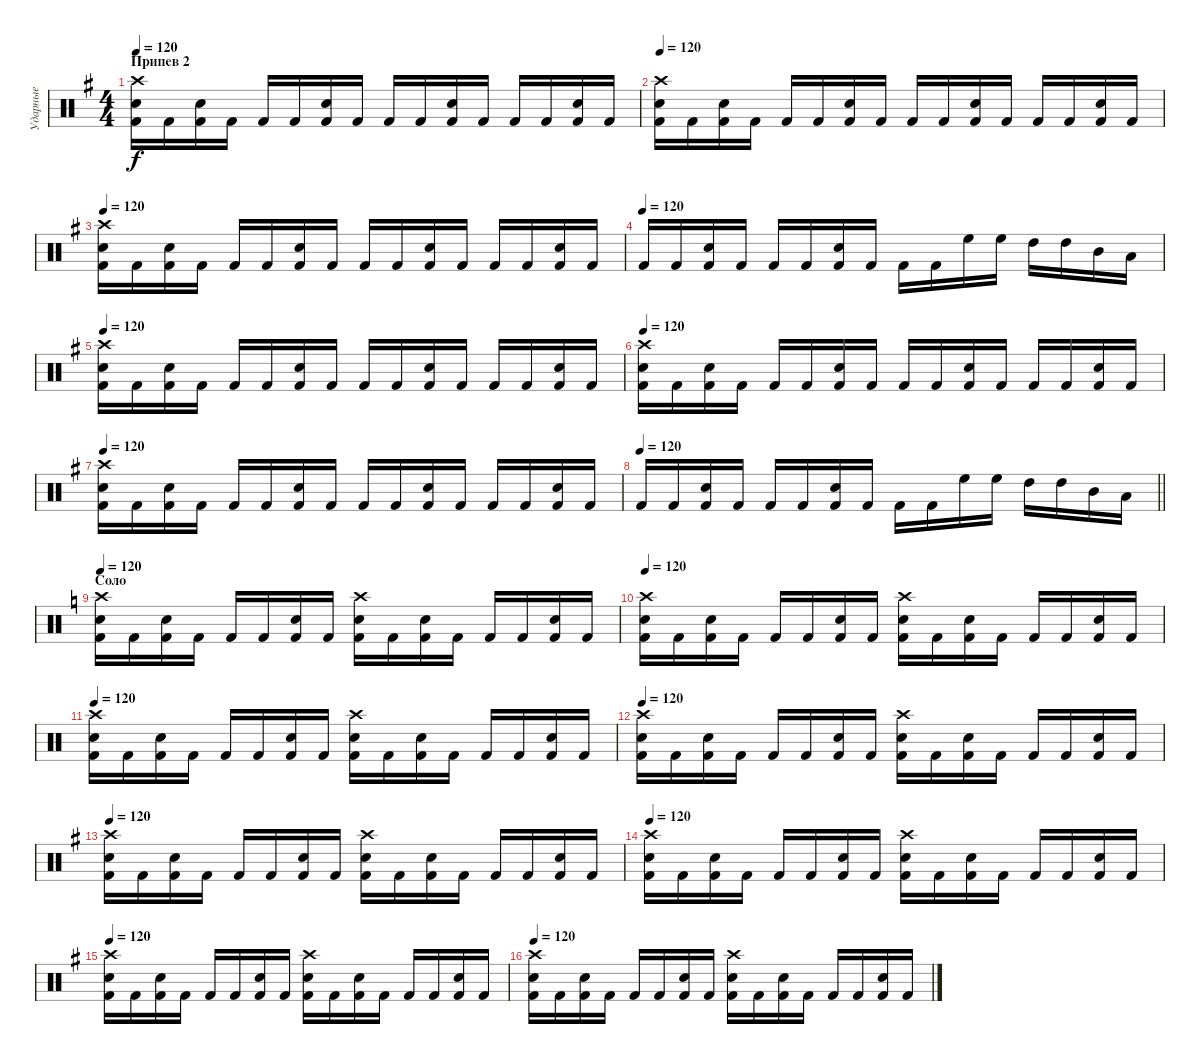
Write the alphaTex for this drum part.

\track ("Ударные" "Ударные") {solo instrument percussion}
\staff {score}
\articulation defaults
\ts (4 4)
\section ("" "Припев 2")
\tempo 120
\clef neutral
\ks g
("Crash high (hit)" "Electric Snare (hit)" "Kick (hit) 2").16{dy f} "Kick (hit) 2".16 ("Electric Snare (hit)" "Kick (hit) 2").16 "Kick (hit) 2".16 "Kick (hit) 2".16 "Kick (hit) 2".16 ("Electric Snare (hit)" "Kick (hit) 2").16 "Kick (hit) 2".16 "Kick (hit) 2".16 "Kick (hit) 2".16 ("Electric Snare (hit)" "Kick (hit) 2").16 "Kick (hit) 2".16 "Kick (hit) 2".16 "Kick (hit) 2".16 ("Electric Snare (hit)" "Kick (hit) 2").16 "Kick (hit) 2".16 |
\tempo 120
("Crash high (hit)" "Electric Snare (hit)" "Kick (hit) 2").16 "Kick (hit) 2".16 ("Electric Snare (hit)" "Kick (hit) 2").16 "Kick (hit) 2".16 "Kick (hit) 2".16 "Kick (hit) 2".16 ("Electric Snare (hit)" "Kick (hit) 2").16 "Kick (hit) 2".16 "Kick (hit) 2".16 "Kick (hit) 2".16 ("Electric Snare (hit)" "Kick (hit) 2").16 "Kick (hit) 2".16 "Kick (hit) 2".16 "Kick (hit) 2".16 ("Electric Snare (hit)" "Kick (hit) 2").16 "Kick (hit) 2".16 |
\tempo 120
("Crash high (hit)" "Electric Snare (hit)" "Kick (hit) 2").16 "Kick (hit) 2".16 ("Electric Snare (hit)" "Kick (hit) 2").16 "Kick (hit) 2".16 "Kick (hit) 2".16 "Kick (hit) 2".16 ("Electric Snare (hit)" "Kick (hit) 2").16 "Kick (hit) 2".16 "Kick (hit) 2".16 "Kick (hit) 2".16 ("Electric Snare (hit)" "Kick (hit) 2").16 "Kick (hit) 2".16 "Kick (hit) 2".16 "Kick (hit) 2".16 ("Electric Snare (hit)" "Kick (hit) 2").16 "Kick (hit) 2".16 |
\tempo (120)
"Kick (hit) 2".16 "Kick (hit) 2".16 ("Electric Snare (hit)" "Kick (hit) 2").16 "Kick (hit) 2".16 "Kick (hit) 2".16 "Kick (hit) 2".16 ("Electric Snare (hit)" "Kick (hit) 2").16 "Kick (hit) 2".16 "Kick (hit) 2".16 "Kick (hit) 2".16 "High Floor Tom (hit)".16 "High Floor Tom (hit)".16 "High Tom (hit)".16 "High Tom (hit)".16 "Mid Tom (hit)".16 "Low Tom (hit)".16 |
\tempo 120
("Crash high (hit)" "Electric Snare (hit)" "Kick (hit) 2").16 "Kick (hit) 2".16 ("Electric Snare (hit)" "Kick (hit) 2").16 "Kick (hit) 2".16 "Kick (hit) 2".16 "Kick (hit) 2".16 ("Electric Snare (hit)" "Kick (hit) 2").16 "Kick (hit) 2".16 "Kick (hit) 2".16 "Kick (hit) 2".16 ("Electric Snare (hit)" "Kick (hit) 2").16 "Kick (hit) 2".16 "Kick (hit) 2".16 "Kick (hit) 2".16 ("Electric Snare (hit)" "Kick (hit) 2").16 "Kick (hit) 2".16 |
\tempo 120
("Crash high (hit)" "Electric Snare (hit)" "Kick (hit) 2").16 "Kick (hit) 2".16 ("Electric Snare (hit)" "Kick (hit) 2").16 "Kick (hit) 2".16 "Kick (hit) 2".16 "Kick (hit) 2".16 ("Electric Snare (hit)" "Kick (hit) 2").16 "Kick (hit) 2".16 "Kick (hit) 2".16 "Kick (hit) 2".16 ("Electric Snare (hit)" "Kick (hit) 2").16 "Kick (hit) 2".16 "Kick (hit) 2".16 "Kick (hit) 2".16 ("Electric Snare (hit)" "Kick (hit) 2").16 "Kick (hit) 2".16 |
\tempo 120
("Crash high (hit)" "Electric Snare (hit)" "Kick (hit) 2").16 "Kick (hit) 2".16 ("Electric Snare (hit)" "Kick (hit) 2").16 "Kick (hit) 2".16 "Kick (hit) 2".16 "Kick (hit) 2".16 ("Electric Snare (hit)" "Kick (hit) 2").16 "Kick (hit) 2".16 "Kick (hit) 2".16 "Kick (hit) 2".16 ("Electric Snare (hit)" "Kick (hit) 2").16 "Kick (hit) 2".16 "Kick (hit) 2".16 "Kick (hit) 2".16 ("Electric Snare (hit)" "Kick (hit) 2").16 "Kick (hit) 2".16 |
\tempo 120
\barLineRight lightlight "Kick (hit) 2".16 "Kick (hit) 2".16
("Electric Snare (hit)" "Kick (hit) 2").16 "Kick (hit) 2".16 "Kick (hit) 2".16 "Kick (hit) 2".16 ("Electric Snare (hit)" "Kick (hit) 2").16 "Kick (hit) 2".16 "Kick (hit) 2".16 "Kick (hit) 2".16 "High Floor Tom (hit)".16 "High Floor Tom (hit)".16 "High Tom (hit)".16 "High Tom (hit)".16 "Mid Tom (hit)".16 "Low Tom (hit)".16 |
\section ("" "Соло")
\tempo 120
\ks c
("Crash high (hit)" "Electric Snare (hit)" "Kick (hit) 2").16 "Kick (hit) 2".16 ("Electric Snare (hit)" "Kick (hit) 2").16 "Kick (hit) 2".16 "Kick (hit) 2".16 "Kick (hit) 2".16 ("Electric Snare (hit)" "Kick (hit) 2").16 "Kick (hit) 2".16 ("Crash high (hit)" "Electric Snare (hit)" "Kick (hit) 2").16 "Kick (hit) 2".16 ("Electric Snare (hit)" "Kick (hit) 2").16 "Kick (hit) 2".16 "Kick (hit) 2".16 "Kick (hit) 2".16 ("Electric Snare (hit)" "Kick (hit) 2").16 "Kick (hit) 2".16 |
\tempo 120
("Crash high (hit)" "Electric Snare (hit)" "Kick (hit) 2").16 "Kick (hit) 2".16 ("Electric Snare (hit)" "Kick (hit) 2").16 "Kick (hit) 2".16 "Kick (hit) 2".16 "Kick (hit) 2".16 ("Electric Snare (hit)" "Kick (hit) 2").16 "Kick (hit) 2".16 ("Crash high (hit)" "Electric Snare (hit)" "Kick (hit) 2").16 "Kick (hit) 2".16 ("Electric Snare (hit)" "Kick (hit) 2").16 "Kick (hit) 2".16 "Kick (hit) 2".16 "Kick (hit) 2".16 ("Electric Snare (hit)" "Kick (hit) 2").16 "Kick (hit) 2".16 |
\tempo 120
("Crash high (hit)" "Electric Snare (hit)" "Kick (hit) 2").16 "Kick (hit) 2".16 ("Electric Snare (hit)" "Kick (hit) 2").16 "Kick (hit) 2".16 "Kick (hit) 2".16 "Kick (hit) 2".16 ("Electric Snare (hit)" "Kick (hit) 2").16 "Kick (hit) 2".16 ("Crash high (hit)" "Electric Snare (hit)" "Kick (hit) 2").16 "Kick (hit) 2".16 ("Electric Snare (hit)" "Kick (hit) 2").16 "Kick (hit) 2".16 "Kick (hit) 2".16 "Kick (hit) 2".16 ("Electric Snare (hit)" "Kick (hit) 2").16 "Kick (hit) 2".16 |
\tempo 120
("Crash high (hit)" "Electric Snare (hit)" "Kick (hit) 2").16 "Kick (hit) 2".16 ("Electric Snare (hit)" "Kick (hit) 2").16 "Kick (hit) 2".16 "Kick (hit) 2".16 "Kick (hit) 2".16 ("Electric Snare (hit)" "Kick (hit) 2").16 "Kick (hit) 2".16 ("Crash high (hit)" "Electric Snare (hit)" "Kick (hit) 2").16 "Kick (hit) 2".16 ("Electric Snare (hit)" "Kick (hit) 2").16 "Kick (hit) 2".16 "Kick (hit) 2".16 "Kick (hit) 2".16 ("Electric Snare (hit)" "Kick (hit) 2").16 "Kick (hit) 2".16 |
\tempo 120
\ks g
("Crash high (hit)" "Electric Snare (hit)" "Kick (hit) 2").16 "Kick (hit) 2".16 ("Electric Snare (hit)" "Kick (hit) 2").16 "Kick (hit) 2".16 "Kick (hit) 2".16 "Kick (hit) 2".16 ("Electric Snare (hit)" "Kick (hit) 2").16 "Kick (hit) 2".16 ("Crash high (hit)" "Electric Snare (hit)" "Kick (hit) 2").16 "Kick (hit) 2".16 ("Electric Snare (hit)" "Kick (hit) 2").16 "Kick (hit) 2".16 "Kick (hit) 2".16 "Kick (hit) 2".16 ("Electric Snare (hit)" "Kick (hit) 2").16 "Kick (hit) 2".16 |
\tempo 120
("Crash high (hit)" "Electric Snare (hit)" "Kick (hit) 2").16 "Kick (hit) 2".16 ("Electric Snare (hit)" "Kick (hit) 2").16 "Kick (hit) 2".16 "Kick (hit) 2".16 "Kick (hit) 2".16 ("Electric Snare (hit)" "Kick (hit) 2").16 "Kick (hit) 2".16 ("Crash high (hit)" "Electric Snare (hit)" "Kick (hit) 2").16 "Kick (hit) 2".16 ("Electric Snare (hit)" "Kick (hit) 2").16 "Kick (hit) 2".16 "Kick (hit) 2".16 "Kick (hit) 2".16 ("Electric Snare (hit)" "Kick (hit) 2").16 "Kick (hit) 2".16 |
\tempo 120
("Crash high (hit)" "Electric Snare (hit)" "Kick (hit) 2").16 "Kick (hit) 2".16 ("Electric Snare (hit)" "Kick (hit) 2").16 "Kick (hit) 2".16 "Kick (hit) 2".16 "Kick (hit) 2".16 ("Electric Snare (hit)" "Kick (hit) 2").16 "Kick (hit) 2".16 ("Crash high (hit)" "Electric Snare (hit)" "Kick (hit) 2").16 "Kick (hit) 2".16 ("Electric Snare (hit)" "Kick (hit) 2").16 "Kick (hit) 2".16 "Kick (hit) 2".16 "Kick (hit) 2".16 ("Electric Snare (hit)" "Kick (hit) 2").16 "Kick (hit) 2".16 |
\tempo 120
("Crash high (hit)" "Electric Snare (hit)" "Kick (hit) 2").16 "Kick (hit) 2".16 ("Electric Snare (hit)" "Kick (hit) 2").16 "Kick (hit) 2".16 "Kick (hit) 2".16 "Kick (hit) 2".16 ("Electric Snare (hit)" "Kick (hit) 2").16 "Kick (hit) 2".16 ("Crash high (hit)" "Electric Snare (hit)" "Kick (hit) 2").16 "Kick (hit) 2".16 ("Electric Snare (hit)" "Kick (hit) 2").16 "Kick (hit) 2".16 "Kick (hit) 2".16 "Kick (hit) 2".16 ("Electric Snare (hit)" "Kick (hit) 2").16 "Kick (hit) 2".16
